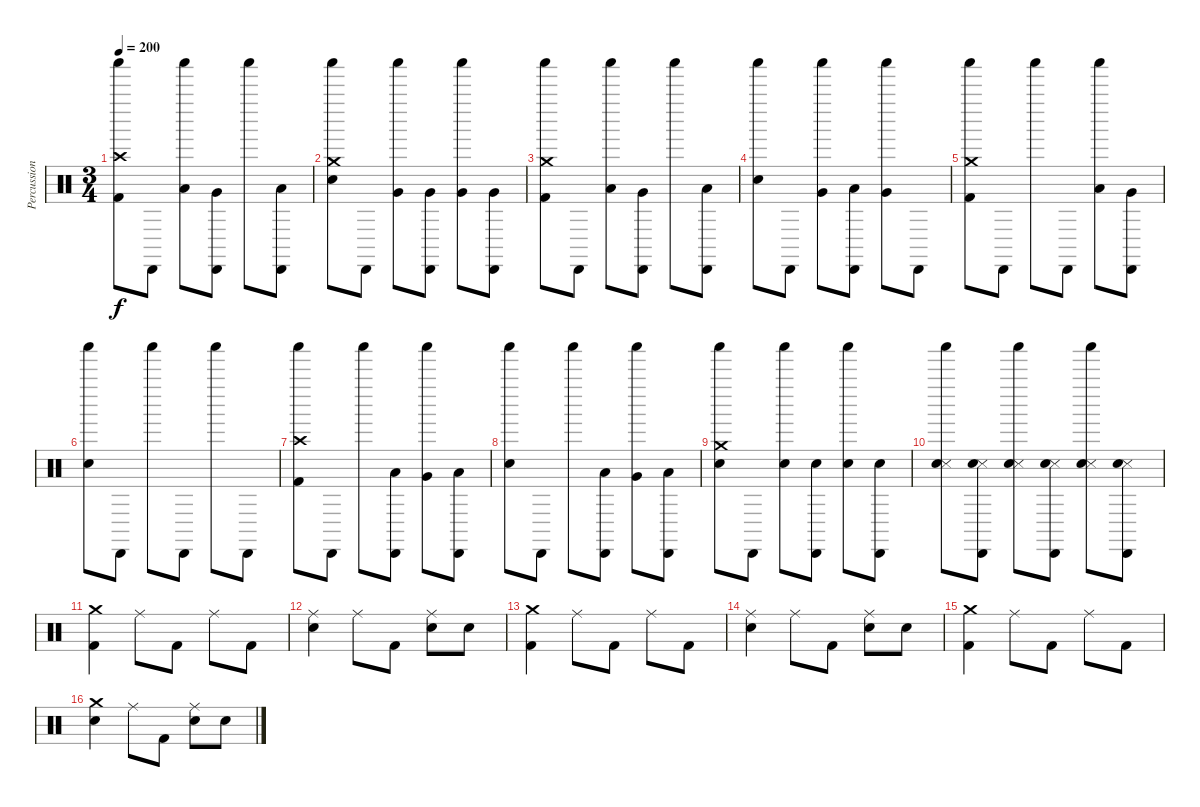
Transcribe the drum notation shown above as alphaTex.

\track ("Percussion" "Percussion") {instrument percussion}
\staff {score}
\articulation defaults
\ts (3 4)
\tempo 200
\clef neutral
\ks c
("Shaker (hit)" "Crash high (hit)" "Kick (hit) 2").8{dy f} "Cabasa (hit)".8 ("Shaker (hit)" "Low Tom (hit)").8 ("Cabasa (hit)" "Very Low Tom (hit)").8 "Shaker (hit)".8 ("Cabasa (hit)" "Low Tom (hit)").8 |
("Shaker (hit)" "Crash medium (hit)" "Electric Snare (hit)").8 "Cabasa (hit)".8 ("Shaker (hit)" "Very Low Tom (hit)").8 ("Cabasa (hit)" "Very Low Tom (hit)").8 ("Shaker (hit)" "Very Low Tom (hit)").8 ("Cabasa (hit)" "Very Low Tom (hit)").8 |
("Shaker (hit)" "Crash medium (hit)" "Kick (hit) 2").8 "Cabasa (hit)".8 ("Shaker (hit)" "Low Tom (hit)").8 ("Cabasa (hit)" "Very Low Tom (hit)").8 "Shaker (hit)".8 ("Cabasa (hit)" "Low Tom (hit)").8 |
("Shaker (hit)" "Electric Snare (hit)").8 "Cabasa (hit)".8 ("Shaker (hit)" "Very Low Tom (hit)").8 ("Cabasa (hit)" "Low Floor Tom (hit)").8 ("Shaker (hit)" "Very Low Tom (hit)").8 "Cabasa (hit)".8 |
("Shaker (hit)" "Crash medium (hit)" "Kick (hit) 2").8 "Cabasa (hit)".8 "Shaker (hit)".8 "Cabasa (hit)".8 ("Shaker (hit)" "Low Tom (hit)").8 ("Cabasa (hit)" "Very Low Tom (hit)").8 |
("Shaker (hit)" "Electric Snare (hit)").8 "Cabasa (hit)".8 "Shaker (hit)".8 "Cabasa (hit)".8 "Shaker (hit)".8 "Cabasa (hit)".8 |
("Shaker (hit)" "Crash high (hit)" "Kick (hit) 2").8 "Cabasa (hit)".8 "Shaker (hit)".8 ("Cabasa (hit)" "Low Tom (hit)").8 ("Shaker (hit)" "Very Low Tom (hit)").8 ("Cabasa (hit)" "Low Tom (hit)").8 |
("Shaker (hit)" "Electric Snare (hit)").8 "Cabasa (hit)".8 "Shaker (hit)".8 ("Cabasa (hit)" "Low Tom (hit)").8 ("Shaker (hit)" "Very Low Tom (hit)").8 ("Cabasa (hit)" "Low Tom (hit)").8 |
("Shaker (hit)" "Crash medium (hit)" "Electric Snare (hit)").8 "Cabasa (hit)".8 ("Shaker (hit)" "Electric Snare (hit)").8 ("Cabasa (hit)" "Electric Snare (hit)").8 ("Shaker (hit)" "Electric Snare (hit)").8 ("Cabasa (hit)" "Electric Snare (hit)").8 |
("Shaker (hit)" "Snare (side stick) 3" "Electric Snare (hit)").8 ("Cabasa (hit)" "Snare (side stick) 3" "Electric Snare (hit)").8 ("Shaker (hit)" "Snare (side stick) 3" "Electric Snare (hit)").8 ("Cabasa (hit)" "Snare (side stick) 3" "Electric Snare (hit)").8 ("Shaker (hit)" "Snare (side stick) 3" "Electric Snare (hit)").8 ("Cabasa (hit)" "Snare (side stick) 3" "Electric Snare (hit)").8 |
("Crash medium (hit)" "Kick (hit) 2").4 "Ride (middle)".8 "Kick (hit) 2".8 "Ride (middle)".8 "Kick (hit) 2".8 |
("Ride (middle)" "Electric Snare (hit)").4 "Ride (middle)".8 "Kick (hit) 2".8 ("Ride (middle)" "Electric Snare (hit)").8 "Electric Snare (hit)".8 |
("Crash medium (hit)" "Kick (hit) 2").4 "Ride (middle)".8 "Kick (hit) 2".8 "Ride (middle)".8 "Kick (hit) 2".8 |
("Ride (middle)" "Electric Snare (hit)").4 "Ride (middle)".8 "Kick (hit) 2".8 ("Ride (middle)" "Electric Snare (hit)").8 "Electric Snare (hit)".8 |
("Crash medium (hit)" "Kick (hit) 2").4 "Ride (middle)".8 "Kick (hit) 2".8 "Ride (middle)".8 "Kick (hit) 2".8 |
("Crash medium (hit)" "Electric Snare (hit)").4 "Ride (middle)".8 "Kick (hit) 2".8 ("Ride (middle)" "Electric Snare (hit)").8 "Electric Snare (hit)".8
